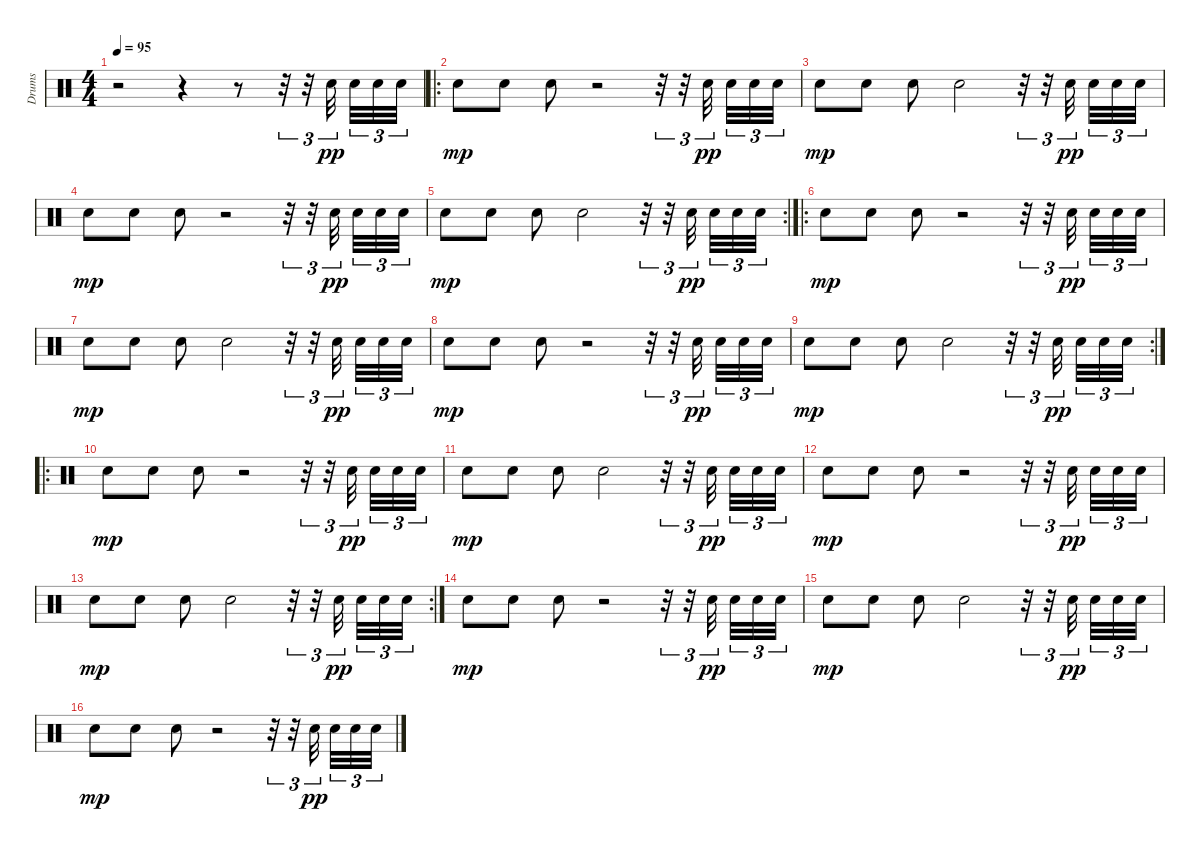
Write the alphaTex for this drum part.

\track ("Drums" "Drums") {instrument percussion}
\staff {score}
\articulation defaults
\ts (4 4)
\tempo 95
\clef neutral
\ks c
r.2{dy pp} r.4 r.8 r.32{tu (3 2)} r.32{tu (3 2)} "Electric Snare (hit)".32{tu (3 2)} "Electric Snare (hit)".32{tu (3 2)} "Electric Snare (hit)".32{tu (3 2)} "Electric Snare (hit)".32{tu (3 2)} |
\ro "Electric Snare (hit)".8{dy mp} "Electric Snare (hit)".8 "Electric Snare (hit)".8
r.2 r.32{tu (3 2)} r.32{tu (3 2)} "Electric Snare (hit)".32{tu (3 2) dy pp} "Electric Snare (hit)".32{tu (3 2)} "Electric Snare (hit)".32{tu (3 2)} "Electric Snare (hit)".32{tu (3 2)} |
"Electric Snare (hit)".8{dy mp} "Electric Snare (hit)".8 "Electric Snare (hit)".8 "Electric Snare (hit)".2 r.32{tu (3 2)} r.32{tu (3 2)} "Electric Snare (hit)".32{tu (3 2) dy pp} "Electric Snare (hit)".32{tu (3 2)} "Electric Snare (hit)".32{tu (3 2)} "Electric Snare (hit)".32{tu (3 2)} |
"Electric Snare (hit)".8{dy mp} "Electric Snare (hit)".8 "Electric Snare (hit)".8 r.2 r.32{tu (3 2)} r.32{tu (3 2)} "Electric Snare (hit)".32{tu (3 2) dy pp} "Electric Snare (hit)".32{tu (3 2)} "Electric Snare (hit)".32{tu (3 2)} "Electric Snare (hit)".32{tu (3 2)} |
\rc 2 "Electric Snare (hit)".8{dy mp} "Electric Snare (hit)".8 "Electric Snare (hit)".8 "Electric Snare (hit)".2
r.32{tu (3 2)} r.32{tu (3 2)} "Electric Snare (hit)".32{tu (3 2) dy pp} "Electric Snare (hit)".32{tu (3 2)} "Electric Snare (hit)".32{tu (3 2)} "Electric Snare (hit)".32{tu (3 2)} |
\ro "Electric Snare (hit)".8{dy mp} "Electric Snare (hit)".8 "Electric Snare (hit)".8
r.2 r.32{tu (3 2)} r.32{tu (3 2)} "Electric Snare (hit)".32{tu (3 2) dy pp} "Electric Snare (hit)".32{tu (3 2)} "Electric Snare (hit)".32{tu (3 2)} "Electric Snare (hit)".32{tu (3 2)} |
"Electric Snare (hit)".8{dy mp} "Electric Snare (hit)".8 "Electric Snare (hit)".8 "Electric Snare (hit)".2 r.32{tu (3 2)} r.32{tu (3 2)} "Electric Snare (hit)".32{tu (3 2) dy pp} "Electric Snare (hit)".32{tu (3 2)} "Electric Snare (hit)".32{tu (3 2)} "Electric Snare (hit)".32{tu (3 2)} |
"Electric Snare (hit)".8{dy mp} "Electric Snare (hit)".8 "Electric Snare (hit)".8 r.2 r.32{tu (3 2)} r.32{tu (3 2)} "Electric Snare (hit)".32{tu (3 2) dy pp} "Electric Snare (hit)".32{tu (3 2)} "Electric Snare (hit)".32{tu (3 2)} "Electric Snare (hit)".32{tu (3 2)} |
\rc 2 "Electric Snare (hit)".8{dy mp} "Electric Snare (hit)".8 "Electric Snare (hit)".8 "Electric Snare (hit)".2
r.32{tu (3 2)} r.32{tu (3 2)} "Electric Snare (hit)".32{tu (3 2) dy pp} "Electric Snare (hit)".32{tu (3 2)} "Electric Snare (hit)".32{tu (3 2)} "Electric Snare (hit)".32{tu (3 2)} |
\ro "Electric Snare (hit)".8{dy mp} "Electric Snare (hit)".8 "Electric Snare (hit)".8
r.2 r.32{tu (3 2)} r.32{tu (3 2)} "Electric Snare (hit)".32{tu (3 2) dy pp} "Electric Snare (hit)".32{tu (3 2)} "Electric Snare (hit)".32{tu (3 2)} "Electric Snare (hit)".32{tu (3 2)} |
"Electric Snare (hit)".8{dy mp} "Electric Snare (hit)".8 "Electric Snare (hit)".8 "Electric Snare (hit)".2 r.32{tu (3 2)} r.32{tu (3 2)} "Electric Snare (hit)".32{tu (3 2) dy pp} "Electric Snare (hit)".32{tu (3 2)} "Electric Snare (hit)".32{tu (3 2)} "Electric Snare (hit)".32{tu (3 2)} |
"Electric Snare (hit)".8{dy mp} "Electric Snare (hit)".8 "Electric Snare (hit)".8 r.2 r.32{tu (3 2)} r.32{tu (3 2)} "Electric Snare (hit)".32{tu (3 2) dy pp} "Electric Snare (hit)".32{tu (3 2)} "Electric Snare (hit)".32{tu (3 2)} "Electric Snare (hit)".32{tu (3 2)} |
\rc 2 "Electric Snare (hit)".8{dy mp} "Electric Snare (hit)".8 "Electric Snare (hit)".8 "Electric Snare (hit)".2
r.32{tu (3 2)} r.32{tu (3 2)} "Electric Snare (hit)".32{tu (3 2) dy pp} "Electric Snare (hit)".32{tu (3 2)} "Electric Snare (hit)".32{tu (3 2)} "Electric Snare (hit)".32{tu (3 2)} |
"Electric Snare (hit)".8{dy mp} "Electric Snare (hit)".8 "Electric Snare (hit)".8 r.2 r.32{tu (3 2)} r.32{tu (3 2)} "Electric Snare (hit)".32{tu (3 2) dy pp} "Electric Snare (hit)".32{tu (3 2)} "Electric Snare (hit)".32{tu (3 2)} "Electric Snare (hit)".32{tu (3 2)} |
"Electric Snare (hit)".8{dy mp} "Electric Snare (hit)".8 "Electric Snare (hit)".8 "Electric Snare (hit)".2 r.32{tu (3 2)} r.32{tu (3 2)} "Electric Snare (hit)".32{tu (3 2) dy pp} "Electric Snare (hit)".32{tu (3 2)} "Electric Snare (hit)".32{tu (3 2)} "Electric Snare (hit)".32{tu (3 2)} |
"Electric Snare (hit)".8{dy mp} "Electric Snare (hit)".8 "Electric Snare (hit)".8 r.2 r.32{tu (3 2)} r.32{tu (3 2)} "Electric Snare (hit)".32{tu (3 2) dy pp} "Electric Snare (hit)".32{tu (3 2)} "Electric Snare (hit)".32{tu (3 2)} "Electric Snare (hit)".32{tu (3 2)}
